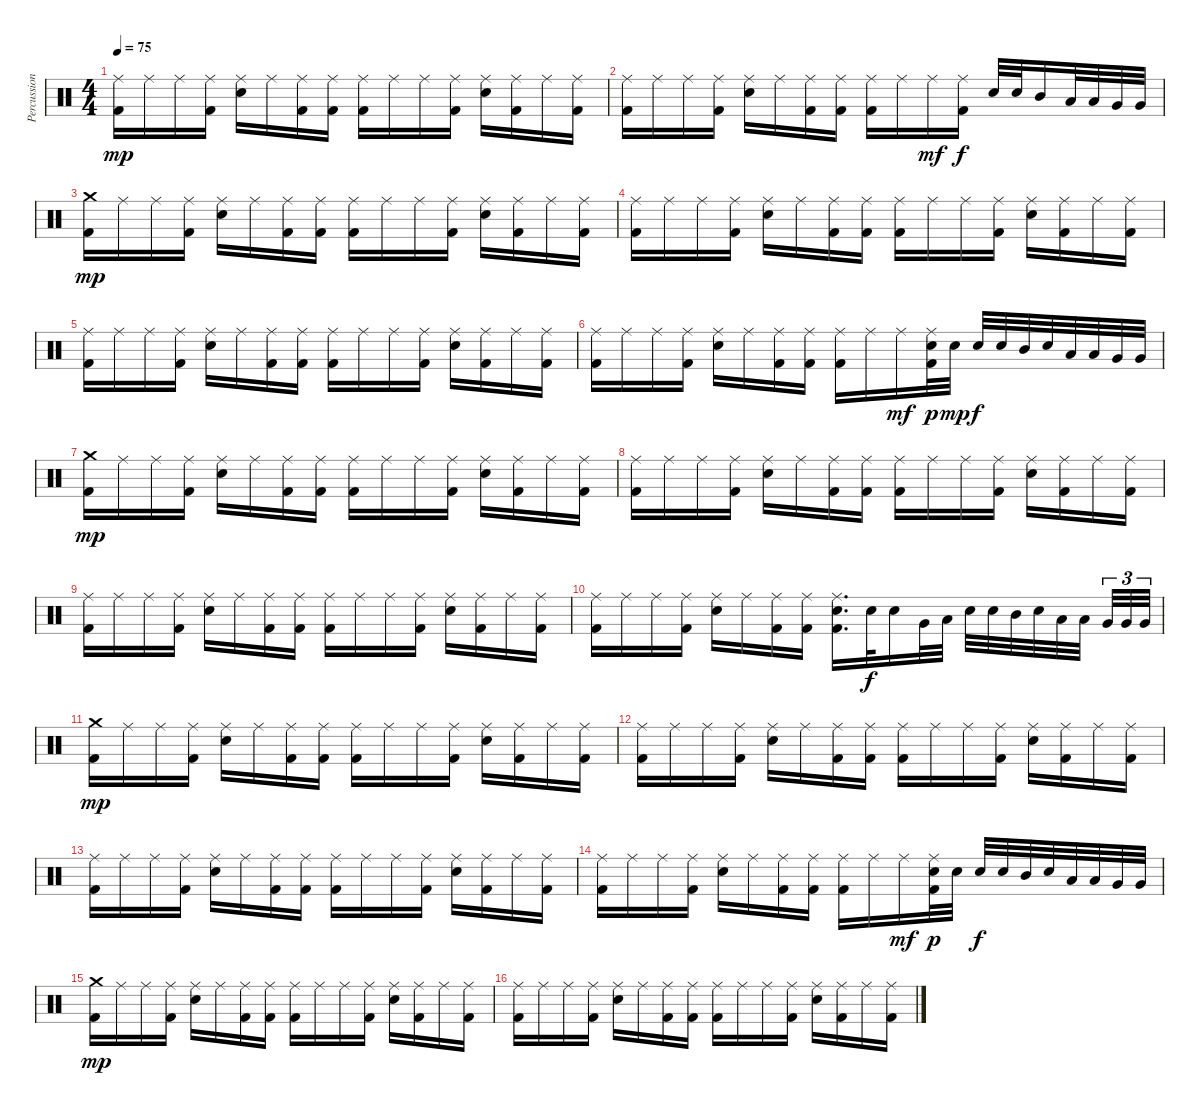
\track ("Percussions" "Percussion") {instrument percussion}
\staff {score}
\articulation defaults
\ts (4 4)
\tempo 75
\clef neutral
\ks c
("Ride (middle)" "Kick (hit) 2").16{dy mp} "Ride (middle)".16 "Ride (middle)".16 ("Ride (middle)" "Kick (hit) 2").16 ("Ride (middle)" "Snare (hit) 2").16 "Ride (middle)".16 ("Ride (middle)" "Kick (hit) 2").16 ("Ride (middle)" "Kick (hit) 2").16 ("Ride (middle)" "Kick (hit) 2").16 "Ride (middle)".16 "Ride (middle)".16 ("Ride (middle)" "Kick (hit) 2").16 ("Ride (middle)" "Snare (hit) 2").16 ("Ride (middle)" "Kick (hit) 2").16 "Ride (middle)".16 ("Ride (middle)" "Kick (hit) 2").16 |
("Ride (middle)" "Kick (hit) 2").16 "Ride (middle)".16 "Ride (middle)".16 ("Ride (middle)" "Kick (hit) 2").16 ("Ride (middle)" "Snare (hit) 2").16 "Ride (middle)".16 ("Ride (middle)" "Kick (hit) 2").16 ("Ride (middle)" "Kick (hit) 2").16 ("Ride (middle)" "Kick (hit) 2").16 "Ride (middle)".16 "Ride (middle)".16{dy mf} ("Ride (middle)" "Kick (hit) 2").16{dy f} "Snare (hit) 2".32 "Snare (hit) 2".32 "Mid Tom (hit)".16 "Low Tom (hit)".32 "Low Tom (hit)".32 "Very Low Tom (hit)".32 "Very Low Tom (hit)".32 |
("Crash medium (hit)" "Kick (hit) 2").16{dy mp} "Ride (middle)".16 "Ride (middle)".16 ("Ride (middle)" "Kick (hit) 2").16 ("Ride (middle)" "Snare (hit) 2").16 "Ride (middle)".16 ("Ride (middle)" "Kick (hit) 2").16 ("Ride (middle)" "Kick (hit) 2").16 ("Ride (middle)" "Kick (hit) 2").16 "Ride (middle)".16 "Ride (middle)".16 ("Ride (middle)" "Kick (hit) 2").16 ("Ride (middle)" "Snare (hit) 2").16 ("Ride (middle)" "Kick (hit) 2").16 "Ride (middle)".16 ("Ride (middle)" "Kick (hit) 2").16 |
("Ride (middle)" "Kick (hit) 2").16 "Ride (middle)".16 "Ride (middle)".16 ("Ride (middle)" "Kick (hit) 2").16 ("Ride (middle)" "Snare (hit) 2").16 "Ride (middle)".16 ("Ride (middle)" "Kick (hit) 2").16 ("Ride (middle)" "Kick (hit) 2").16 ("Ride (middle)" "Kick (hit) 2").16 "Ride (middle)".16 "Ride (middle)".16 ("Ride (middle)" "Kick (hit) 2").16 ("Ride (middle)" "Snare (hit) 2").16 ("Ride (middle)" "Kick (hit) 2").16 "Ride (middle)".16 ("Ride (middle)" "Kick (hit) 2").16 |
("Ride (middle)" "Kick (hit) 2").16 "Ride (middle)".16 "Ride (middle)".16 ("Ride (middle)" "Kick (hit) 2").16 ("Ride (middle)" "Snare (hit) 2").16 "Ride (middle)".16 ("Ride (middle)" "Kick (hit) 2").16 ("Ride (middle)" "Kick (hit) 2").16 ("Ride (middle)" "Kick (hit) 2").16 "Ride (middle)".16 "Ride (middle)".16 ("Ride (middle)" "Kick (hit) 2").16 ("Ride (middle)" "Snare (hit) 2").16 ("Ride (middle)" "Kick (hit) 2").16 "Ride (middle)".16 ("Ride (middle)" "Kick (hit) 2").16 |
("Ride (middle)" "Kick (hit) 2").16 "Ride (middle)".16 "Ride (middle)".16 ("Ride (middle)" "Kick (hit) 2").16 ("Ride (middle)" "Snare (hit) 2").16 "Ride (middle)".16 ("Ride (middle)" "Kick (hit) 2").16 ("Ride (middle)" "Kick (hit) 2").16 ("Ride (middle)" "Kick (hit) 2").16 "Ride (middle)".16 "Ride (middle)".16{dy mf} ("Ride (middle)" "Snare (hit) 2" "Kick (hit) 2").32{dy p} "Snare (hit) 2".32{dy mp} "Snare (hit) 2".32{dy f} "Snare (hit) 2".32 "Mid Tom (hit)".32 "Snare (hit) 2".32 "Low Tom (hit)".32 "Low Tom (hit)".32 "Very Low Tom (hit)".32 "Very Low Tom (hit)".32 |
("Crash medium (hit)" "Kick (hit) 2").16{dy mp} "Ride (middle)".16 "Ride (middle)".16 ("Ride (middle)" "Kick (hit) 2").16 ("Ride (middle)" "Snare (hit) 2").16 "Ride (middle)".16 ("Ride (middle)" "Kick (hit) 2").16 ("Ride (middle)" "Kick (hit) 2").16 ("Ride (middle)" "Kick (hit) 2").16 "Ride (middle)".16 "Ride (middle)".16 ("Ride (middle)" "Kick (hit) 2").16 ("Ride (middle)" "Snare (hit) 2").16 ("Ride (middle)" "Kick (hit) 2").16 "Ride (middle)".16 ("Ride (middle)" "Kick (hit) 2").16 |
("Ride (middle)" "Kick (hit) 2").16 "Ride (middle)".16 "Ride (middle)".16 ("Ride (middle)" "Kick (hit) 2").16 ("Ride (middle)" "Snare (hit) 2").16 "Ride (middle)".16 ("Ride (middle)" "Kick (hit) 2").16 ("Ride (middle)" "Kick (hit) 2").16 ("Ride (middle)" "Kick (hit) 2").16 "Ride (middle)".16 "Ride (middle)".16 ("Ride (middle)" "Kick (hit) 2").16 ("Ride (middle)" "Snare (hit) 2").16 ("Ride (middle)" "Kick (hit) 2").16 "Ride (middle)".16 ("Ride (middle)" "Kick (hit) 2").16 |
("Ride (middle)" "Kick (hit) 2").16 "Ride (middle)".16 "Ride (middle)".16 ("Ride (middle)" "Kick (hit) 2").16 ("Ride (middle)" "Snare (hit) 2").16 "Ride (middle)".16 ("Ride (middle)" "Kick (hit) 2").16 ("Ride (middle)" "Kick (hit) 2").16 ("Ride (middle)" "Kick (hit) 2").16 "Ride (middle)".16 "Ride (middle)".16 ("Ride (middle)" "Kick (hit) 2").16 ("Ride (middle)" "Snare (hit) 2").16 ("Ride (middle)" "Kick (hit) 2").16 "Ride (middle)".16 ("Ride (middle)" "Kick (hit) 2").16 |
("Ride (middle)" "Kick (hit) 2").16 "Ride (middle)".16 "Ride (middle)".16 ("Ride (middle)" "Kick (hit) 2").16 ("Ride (middle)" "Snare (hit) 2").16 "Ride (middle)".16 ("Ride (middle)" "Kick (hit) 2").16 ("Ride (middle)" "Kick (hit) 2").16 ("Ride (middle)" "Snare (hit) 2" "Kick (hit) 2").16{d} "Snare (hit) 2".32{dy f} "Snare (hit) 2".16 "Very Low Tom (hit)".32 "Low Tom (hit)".32 "Snare (hit) 2".32 "Snare (hit) 2".32 "Mid Tom (hit)".32 "Snare (hit) 2".32 "Low Tom (hit)".32 "Low Tom (hit)".32{beam splitsecondary} "Very Low Tom (hit)".32{tu (3 2)} "Very Low Tom (hit)".32{tu (3 2)} "Very Low Tom (hit)".32{tu (3 2)} |
("Crash medium (hit)" "Kick (hit) 2").16{dy mp} "Ride (middle)".16 "Ride (middle)".16 ("Ride (middle)" "Kick (hit) 2").16 ("Ride (middle)" "Snare (hit) 2").16 "Ride (middle)".16 ("Ride (middle)" "Kick (hit) 2").16 ("Ride (middle)" "Kick (hit) 2").16 ("Ride (middle)" "Kick (hit) 2").16 "Ride (middle)".16 "Ride (middle)".16 ("Ride (middle)" "Kick (hit) 2").16 ("Ride (middle)" "Snare (hit) 2").16 ("Ride (middle)" "Kick (hit) 2").16 "Ride (middle)".16 ("Ride (middle)" "Kick (hit) 2").16 |
("Ride (middle)" "Kick (hit) 2").16 "Ride (middle)".16 "Ride (middle)".16 ("Ride (middle)" "Kick (hit) 2").16 ("Ride (middle)" "Snare (hit) 2").16 "Ride (middle)".16 ("Ride (middle)" "Kick (hit) 2").16 ("Ride (middle)" "Kick (hit) 2").16 ("Ride (middle)" "Kick (hit) 2").16 "Ride (middle)".16 "Ride (middle)".16 ("Ride (middle)" "Kick (hit) 2").16 ("Ride (middle)" "Snare (hit) 2").16 ("Ride (middle)" "Kick (hit) 2").16 "Ride (middle)".16 ("Ride (middle)" "Kick (hit) 2").16 |
("Ride (middle)" "Kick (hit) 2").16 "Ride (middle)".16 "Ride (middle)".16 ("Ride (middle)" "Kick (hit) 2").16 ("Ride (middle)" "Snare (hit) 2").16 "Ride (middle)".16 ("Ride (middle)" "Kick (hit) 2").16 ("Ride (middle)" "Kick (hit) 2").16 ("Ride (middle)" "Kick (hit) 2").16 "Ride (middle)".16 "Ride (middle)".16 ("Ride (middle)" "Kick (hit) 2").16 ("Ride (middle)" "Snare (hit) 2").16 ("Ride (middle)" "Kick (hit) 2").16 "Ride (middle)".16 ("Ride (middle)" "Kick (hit) 2").16 |
("Ride (middle)" "Kick (hit) 2").16 "Ride (middle)".16 "Ride (middle)".16 ("Ride (middle)" "Kick (hit) 2").16 ("Ride (middle)" "Snare (hit) 2").16 "Ride (middle)".16 ("Ride (middle)" "Kick (hit) 2").16 ("Ride (middle)" "Kick (hit) 2").16 ("Ride (middle)" "Kick (hit) 2").16 "Ride (middle)".16 "Ride (middle)".16{dy mf} ("Ride (middle)" "Snare (hit) 2" "Kick (hit) 2").32{dy p} "Snare (hit) 2".32 "Snare (hit) 2".32{dy f} "Snare (hit) 2".32 "Mid Tom (hit)".32 "Snare (hit) 2".32 "Low Tom (hit)".32 "Low Tom (hit)".32 "Very Low Tom (hit)".32 "Very Low Tom (hit)".32 |
("Crash medium (hit)" "Kick (hit) 2").16{dy mp} "Ride (middle)".16 "Ride (middle)".16 ("Ride (middle)" "Kick (hit) 2").16 ("Ride (middle)" "Snare (hit) 2").16 "Ride (middle)".16 ("Ride (middle)" "Kick (hit) 2").16 ("Ride (middle)" "Kick (hit) 2").16 ("Ride (middle)" "Kick (hit) 2").16 "Ride (middle)".16 "Ride (middle)".16 ("Ride (middle)" "Kick (hit) 2").16 ("Ride (middle)" "Snare (hit) 2").16 ("Ride (middle)" "Kick (hit) 2").16 "Ride (middle)".16 ("Ride (middle)" "Kick (hit) 2").16 |
("Ride (middle)" "Kick (hit) 2").16 "Ride (middle)".16 "Ride (middle)".16 ("Ride (middle)" "Kick (hit) 2").16 ("Ride (middle)" "Snare (hit) 2").16 "Ride (middle)".16 ("Ride (middle)" "Kick (hit) 2").16 ("Ride (middle)" "Kick (hit) 2").16 ("Ride (middle)" "Kick (hit) 2").16 "Ride (middle)".16 "Ride (middle)".16 ("Ride (middle)" "Kick (hit) 2").16 ("Ride (middle)" "Snare (hit) 2").16 ("Ride (middle)" "Kick (hit) 2").16 "Ride (middle)".16 ("Ride (middle)" "Kick (hit) 2").16
